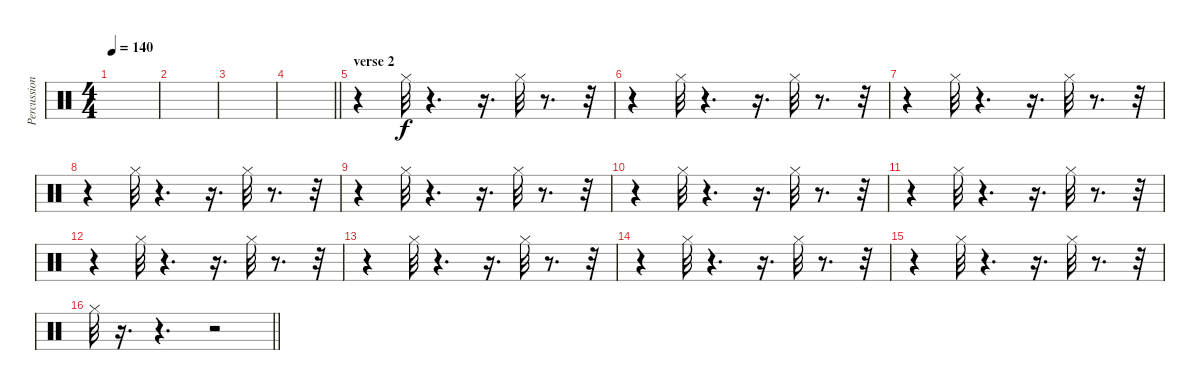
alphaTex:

\track ("Percussions" "Percussion") {instrument percussion}
\staff {score}
\articulation defaults
\ts (4 4)
\tempo 140
\clef neutral
\ks c
|
|
|
\barLineRight lightlight
|
\section ("" "verse 2")
r.4 "Hi-Hat (closed)".32 r.4{d} r.16{d} "Hi-Hat (closed)".32 r.8{d} r.32 |
r.4 "Hi-Hat (closed)".32 r.4{d} r.16{d} "Hi-Hat (closed)".32 r.8{d} r.32 |
r.4 "Hi-Hat (closed)".32 r.4{d} r.16{d} "Hi-Hat (closed)".32 r.8{d} r.32 |
r.4 "Hi-Hat (closed)".32 r.4{d} r.16{d} "Hi-Hat (closed)".32 r.8{d} r.32 |
r.4 "Hi-Hat (closed)".32 r.4{d} r.16{d} "Hi-Hat (closed)".32 r.8{d} r.32 |
r.4 "Hi-Hat (closed)".32 r.4{d} r.16{d} "Hi-Hat (closed)".32 r.8{d} r.32 |
r.4 "Hi-Hat (closed)".32 r.4{d} r.16{d} "Hi-Hat (closed)".32 r.8{d} r.32 |
r.4 "Hi-Hat (closed)".32 r.4{d} r.16{d} "Hi-Hat (closed)".32 r.8{d} r.32 |
r.4 "Hi-Hat (closed)".32 r.4{d} r.16{d} "Hi-Hat (closed)".32 r.8{d} r.32 |
r.4 "Hi-Hat (closed)".32 r.4{d} r.16{d} "Hi-Hat (closed)".32 r.8{d} r.32 |
r.4 "Hi-Hat (closed)".32 r.4{d} r.16{d} "Hi-Hat (closed)".32 r.8{d} r.32 |
\barLineRight lightlight "Hi-Hat (closed)".32
r.16{d} r.4{d} r.2
